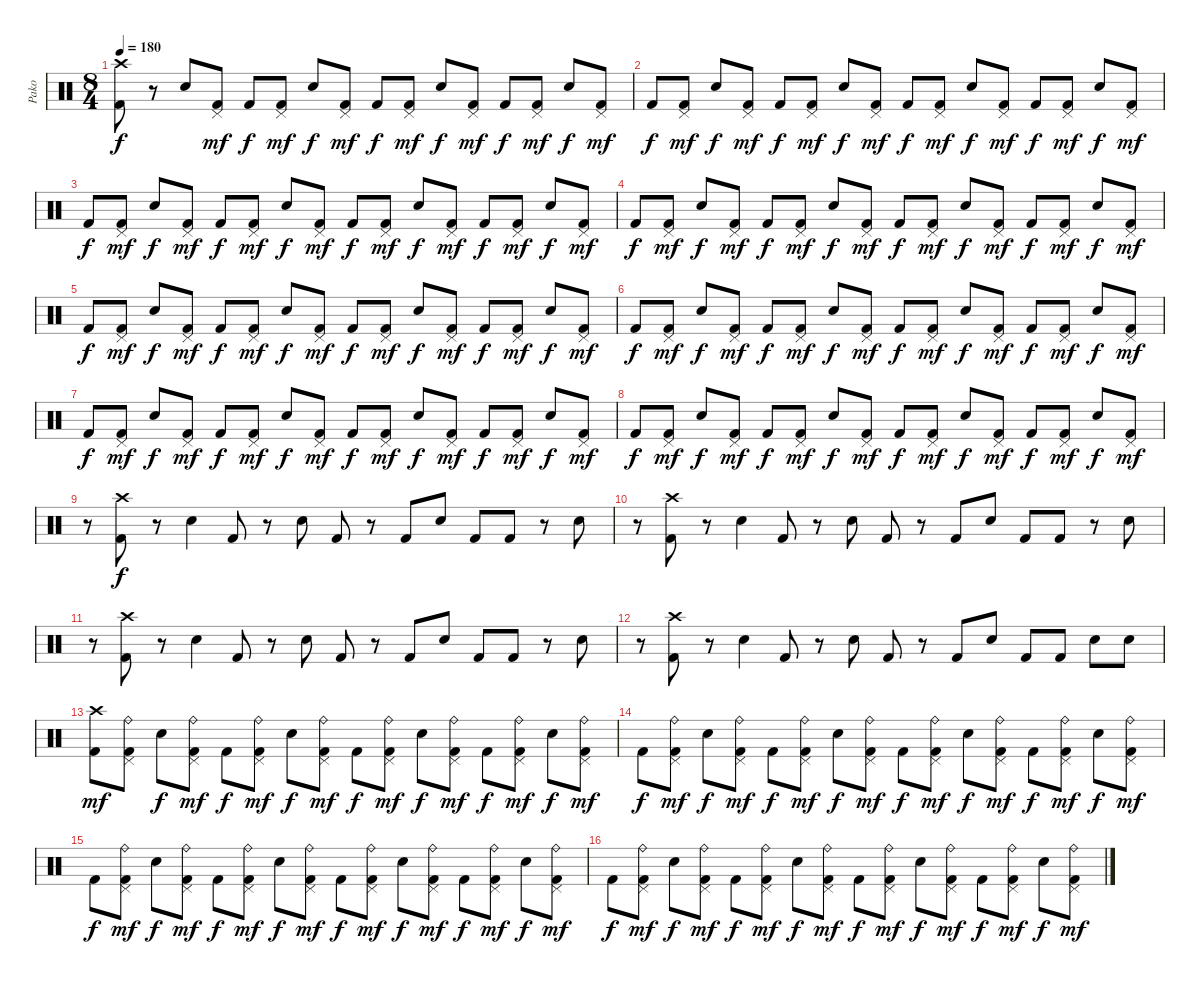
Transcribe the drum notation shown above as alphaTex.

\track ("Pako" "Pako") {instrument percussion}
\staff {score}
\articulation defaults
\ts (8 4)
\tempo 180
\clef neutral
\ks c
("Crash high (hit)" "Kick (hit) 2").8{dy f} r.8 "Electric Snare (hit)".8 ("Pedal Hi-Hat (hit)" "Kick (hit) 2").8{dy mf} "Kick (hit) 2".8{dy f} ("Pedal Hi-Hat (hit)" "Kick (hit) 2").8{dy mf} "Electric Snare (hit)".8{dy f} ("Pedal Hi-Hat (hit)" "Kick (hit) 2").8{dy mf} "Kick (hit) 2".8{dy f} ("Pedal Hi-Hat (hit)" "Kick (hit) 2").8{dy mf} "Electric Snare (hit)".8{dy f} ("Pedal Hi-Hat (hit)" "Kick (hit) 2").8{dy mf} "Kick (hit) 2".8{dy f} ("Pedal Hi-Hat (hit)" "Kick (hit) 2").8{dy mf} "Electric Snare (hit)".8{dy f} ("Pedal Hi-Hat (hit)" "Kick (hit) 2").8{dy mf} |
"Kick (hit) 2".8{dy f} ("Pedal Hi-Hat (hit)" "Kick (hit) 2").8{dy mf} "Electric Snare (hit)".8{dy f} ("Pedal Hi-Hat (hit)" "Kick (hit) 2").8{dy mf} "Kick (hit) 2".8{dy f} ("Pedal Hi-Hat (hit)" "Kick (hit) 2").8{dy mf} "Electric Snare (hit)".8{dy f} ("Pedal Hi-Hat (hit)" "Kick (hit) 2").8{dy mf} "Kick (hit) 2".8{dy f} ("Pedal Hi-Hat (hit)" "Kick (hit) 2").8{dy mf} "Electric Snare (hit)".8{dy f} ("Pedal Hi-Hat (hit)" "Kick (hit) 2").8{dy mf} "Kick (hit) 2".8{dy f} ("Pedal Hi-Hat (hit)" "Kick (hit) 2").8{dy mf} "Electric Snare (hit)".8{dy f} ("Pedal Hi-Hat (hit)" "Kick (hit) 2").8{dy mf} |
"Kick (hit) 2".8{dy f} ("Pedal Hi-Hat (hit)" "Kick (hit) 2").8{dy mf} "Electric Snare (hit)".8{dy f} ("Pedal Hi-Hat (hit)" "Kick (hit) 2").8{dy mf} "Kick (hit) 2".8{dy f} ("Pedal Hi-Hat (hit)" "Kick (hit) 2").8{dy mf} "Electric Snare (hit)".8{dy f} ("Pedal Hi-Hat (hit)" "Kick (hit) 2").8{dy mf} "Kick (hit) 2".8{dy f} ("Pedal Hi-Hat (hit)" "Kick (hit) 2").8{dy mf} "Electric Snare (hit)".8{dy f} ("Pedal Hi-Hat (hit)" "Kick (hit) 2").8{dy mf} "Kick (hit) 2".8{dy f} ("Pedal Hi-Hat (hit)" "Kick (hit) 2").8{dy mf} "Electric Snare (hit)".8{dy f} ("Pedal Hi-Hat (hit)" "Kick (hit) 2").8{dy mf} |
"Kick (hit) 2".8{dy f} ("Pedal Hi-Hat (hit)" "Kick (hit) 2").8{dy mf} "Electric Snare (hit)".8{dy f} ("Pedal Hi-Hat (hit)" "Kick (hit) 2").8{dy mf} "Kick (hit) 2".8{dy f} ("Pedal Hi-Hat (hit)" "Kick (hit) 2").8{dy mf} "Electric Snare (hit)".8{dy f} ("Pedal Hi-Hat (hit)" "Kick (hit) 2").8{dy mf} "Kick (hit) 2".8{dy f} ("Pedal Hi-Hat (hit)" "Kick (hit) 2").8{dy mf} "Electric Snare (hit)".8{dy f} ("Pedal Hi-Hat (hit)" "Kick (hit) 2").8{dy mf} "Kick (hit) 2".8{dy f} ("Pedal Hi-Hat (hit)" "Kick (hit) 2").8{dy mf} "Electric Snare (hit)".8{dy f} ("Pedal Hi-Hat (hit)" "Kick (hit) 2").8{dy mf} |
"Kick (hit) 2".8{dy f} ("Pedal Hi-Hat (hit)" "Kick (hit) 2").8{dy mf} "Electric Snare (hit)".8{dy f} ("Pedal Hi-Hat (hit)" "Kick (hit) 2").8{dy mf} "Kick (hit) 2".8{dy f} ("Pedal Hi-Hat (hit)" "Kick (hit) 2").8{dy mf} "Electric Snare (hit)".8{dy f} ("Pedal Hi-Hat (hit)" "Kick (hit) 2").8{dy mf} "Kick (hit) 2".8{dy f} ("Pedal Hi-Hat (hit)" "Kick (hit) 2").8{dy mf} "Electric Snare (hit)".8{dy f} ("Pedal Hi-Hat (hit)" "Kick (hit) 2").8{dy mf} "Kick (hit) 2".8{dy f} ("Pedal Hi-Hat (hit)" "Kick (hit) 2").8{dy mf} "Electric Snare (hit)".8{dy f} ("Pedal Hi-Hat (hit)" "Kick (hit) 2").8{dy mf} |
"Kick (hit) 2".8{dy f} ("Pedal Hi-Hat (hit)" "Kick (hit) 2").8{dy mf} "Electric Snare (hit)".8{dy f} ("Pedal Hi-Hat (hit)" "Kick (hit) 2").8{dy mf} "Kick (hit) 2".8{dy f} ("Pedal Hi-Hat (hit)" "Kick (hit) 2").8{dy mf} "Electric Snare (hit)".8{dy f} ("Pedal Hi-Hat (hit)" "Kick (hit) 2").8{dy mf} "Kick (hit) 2".8{dy f} ("Pedal Hi-Hat (hit)" "Kick (hit) 2").8{dy mf} "Electric Snare (hit)".8{dy f} ("Pedal Hi-Hat (hit)" "Kick (hit) 2").8{dy mf} "Kick (hit) 2".8{dy f} ("Pedal Hi-Hat (hit)" "Kick (hit) 2").8{dy mf} "Electric Snare (hit)".8{dy f} ("Pedal Hi-Hat (hit)" "Kick (hit) 2").8{dy mf} |
"Kick (hit) 2".8{dy f} ("Pedal Hi-Hat (hit)" "Kick (hit) 2").8{dy mf} "Electric Snare (hit)".8{dy f} ("Pedal Hi-Hat (hit)" "Kick (hit) 2").8{dy mf} "Kick (hit) 2".8{dy f} ("Pedal Hi-Hat (hit)" "Kick (hit) 2").8{dy mf} "Electric Snare (hit)".8{dy f} ("Pedal Hi-Hat (hit)" "Kick (hit) 2").8{dy mf} "Kick (hit) 2".8{dy f} ("Pedal Hi-Hat (hit)" "Kick (hit) 2").8{dy mf} "Electric Snare (hit)".8{dy f} ("Pedal Hi-Hat (hit)" "Kick (hit) 2").8{dy mf} "Kick (hit) 2".8{dy f} ("Pedal Hi-Hat (hit)" "Kick (hit) 2").8{dy mf} "Electric Snare (hit)".8{dy f} ("Pedal Hi-Hat (hit)" "Kick (hit) 2").8{dy mf} |
"Kick (hit) 2".8{dy f} ("Pedal Hi-Hat (hit)" "Kick (hit) 2").8{dy mf} "Electric Snare (hit)".8{dy f} ("Pedal Hi-Hat (hit)" "Kick (hit) 2").8{dy mf} "Kick (hit) 2".8{dy f} ("Pedal Hi-Hat (hit)" "Kick (hit) 2").8{dy mf} "Electric Snare (hit)".8{dy f} ("Pedal Hi-Hat (hit)" "Kick (hit) 2").8{dy mf} "Kick (hit) 2".8{dy f} ("Pedal Hi-Hat (hit)" "Kick (hit) 2").8{dy mf} "Electric Snare (hit)".8{dy f} ("Pedal Hi-Hat (hit)" "Kick (hit) 2").8{dy mf} "Kick (hit) 2".8{dy f} ("Pedal Hi-Hat (hit)" "Kick (hit) 2").8{dy mf} "Electric Snare (hit)".8{dy f} ("Pedal Hi-Hat (hit)" "Kick (hit) 2").8{dy mf} |
r.8 ("Kick (hit) 2" "Crash high (hit)").8{dy f} r.8 "Electric Snare (hit)".4 "Kick (hit) 2".8 r.8 "Electric Snare (hit)".8 "Kick (hit) 2".8 r.8 "Kick (hit) 2".8 "Electric Snare (hit)".8 "Kick (hit) 2".8 "Kick (hit) 2".8 r.8 "Electric Snare (hit)".8 |
r.8 ("Kick (hit) 2" "Crash high (hit)").8 r.8 "Electric Snare (hit)".4 "Kick (hit) 2".8 r.8 "Electric Snare (hit)".8 "Kick (hit) 2".8 r.8 "Kick (hit) 2".8 "Electric Snare (hit)".8 "Kick (hit) 2".8 "Kick (hit) 2".8 r.8 "Electric Snare (hit)".8 |
r.8 ("Kick (hit) 2" "Crash high (hit)").8 r.8 "Electric Snare (hit)".4 "Kick (hit) 2".8 r.8 "Electric Snare (hit)".8 "Kick (hit) 2".8 r.8 "Kick (hit) 2".8 "Electric Snare (hit)".8 "Kick (hit) 2".8 "Kick (hit) 2".8 r.8 "Electric Snare (hit)".8 |
r.8 ("Kick (hit) 2" "Crash high (hit)").8 r.8 "Electric Snare (hit)".4 "Kick (hit) 2".8 r.8 "Electric Snare (hit)".8 "Kick (hit) 2".8 r.8 "Kick (hit) 2".8 "Electric Snare (hit)".8 "Kick (hit) 2".8 "Kick (hit) 2".8 "Electric Snare (hit)".8 "Electric Snare (hit)".8 |
("Crash high (hit)" "Kick (hit) 2").8{dy mf} ("Pedal Hi-Hat (hit)" "Ride (bell)" "Kick (hit) 2").8 "Electric Snare (hit)".8{dy f} ("Pedal Hi-Hat (hit)" "Ride (bell)" "Kick (hit) 2").8{dy mf} "Kick (hit) 2".8{dy f} ("Pedal Hi-Hat (hit)" "Ride (bell)" "Kick (hit) 2").8{dy mf} "Electric Snare (hit)".8{dy f} ("Pedal Hi-Hat (hit)" "Ride (bell)" "Kick (hit) 2").8{dy mf} "Kick (hit) 2".8{dy f} ("Pedal Hi-Hat (hit)" "Ride (bell)" "Kick (hit) 2").8{dy mf} "Electric Snare (hit)".8{dy f} ("Pedal Hi-Hat (hit)" "Ride (bell)" "Kick (hit) 2").8{dy mf} "Kick (hit) 2".8{dy f} ("Pedal Hi-Hat (hit)" "Ride (bell)" "Kick (hit) 2").8{dy mf} "Electric Snare (hit)".8{dy f} ("Pedal Hi-Hat (hit)" "Ride (bell)" "Kick (hit) 2").8{dy mf} |
"Kick (hit) 2".8{dy f} ("Pedal Hi-Hat (hit)" "Ride (bell)" "Kick (hit) 2").8{dy mf} "Electric Snare (hit)".8{dy f} ("Pedal Hi-Hat (hit)" "Ride (bell)" "Kick (hit) 2").8{dy mf} "Kick (hit) 2".8{dy f} ("Pedal Hi-Hat (hit)" "Ride (bell)" "Kick (hit) 2").8{dy mf} "Electric Snare (hit)".8{dy f} ("Pedal Hi-Hat (hit)" "Ride (bell)" "Kick (hit) 2").8{dy mf} "Kick (hit) 2".8{dy f} ("Pedal Hi-Hat (hit)" "Ride (bell)" "Kick (hit) 2").8{dy mf} "Electric Snare (hit)".8{dy f} ("Pedal Hi-Hat (hit)" "Ride (bell)" "Kick (hit) 2").8{dy mf} "Kick (hit) 2".8{dy f} ("Pedal Hi-Hat (hit)" "Ride (bell)" "Kick (hit) 2").8{dy mf} "Electric Snare (hit)".8{dy f} ("Pedal Hi-Hat (hit)" "Ride (bell)" "Kick (hit) 2").8{dy mf} |
"Kick (hit) 2".8{dy f} ("Pedal Hi-Hat (hit)" "Ride (bell)" "Kick (hit) 2").8{dy mf} "Electric Snare (hit)".8{dy f} ("Pedal Hi-Hat (hit)" "Ride (bell)" "Kick (hit) 2").8{dy mf} "Kick (hit) 2".8{dy f} ("Pedal Hi-Hat (hit)" "Ride (bell)" "Kick (hit) 2").8{dy mf} "Electric Snare (hit)".8{dy f} ("Pedal Hi-Hat (hit)" "Ride (bell)" "Kick (hit) 2").8{dy mf} "Kick (hit) 2".8{dy f} ("Pedal Hi-Hat (hit)" "Ride (bell)" "Kick (hit) 2").8{dy mf} "Electric Snare (hit)".8{dy f} ("Pedal Hi-Hat (hit)" "Ride (bell)" "Kick (hit) 2").8{dy mf} "Kick (hit) 2".8{dy f} ("Pedal Hi-Hat (hit)" "Ride (bell)" "Kick (hit) 2").8{dy mf} "Electric Snare (hit)".8{dy f} ("Pedal Hi-Hat (hit)" "Ride (bell)" "Kick (hit) 2").8{dy mf} |
"Kick (hit) 2".8{dy f} ("Pedal Hi-Hat (hit)" "Ride (bell)" "Kick (hit) 2").8{dy mf} "Electric Snare (hit)".8{dy f} ("Pedal Hi-Hat (hit)" "Ride (bell)" "Kick (hit) 2").8{dy mf} "Kick (hit) 2".8{dy f} ("Pedal Hi-Hat (hit)" "Ride (bell)" "Kick (hit) 2").8{dy mf} "Electric Snare (hit)".8{dy f} ("Pedal Hi-Hat (hit)" "Ride (bell)" "Kick (hit) 2").8{dy mf} "Kick (hit) 2".8{dy f} ("Pedal Hi-Hat (hit)" "Ride (bell)" "Kick (hit) 2").8{dy mf} "Electric Snare (hit)".8{dy f} ("Pedal Hi-Hat (hit)" "Ride (bell)" "Kick (hit) 2").8{dy mf} "Kick (hit) 2".8{dy f} ("Pedal Hi-Hat (hit)" "Ride (bell)" "Kick (hit) 2").8{dy mf} "Electric Snare (hit)".8{dy f} ("Pedal Hi-Hat (hit)" "Ride (bell)" "Kick (hit) 2").8{dy mf}
